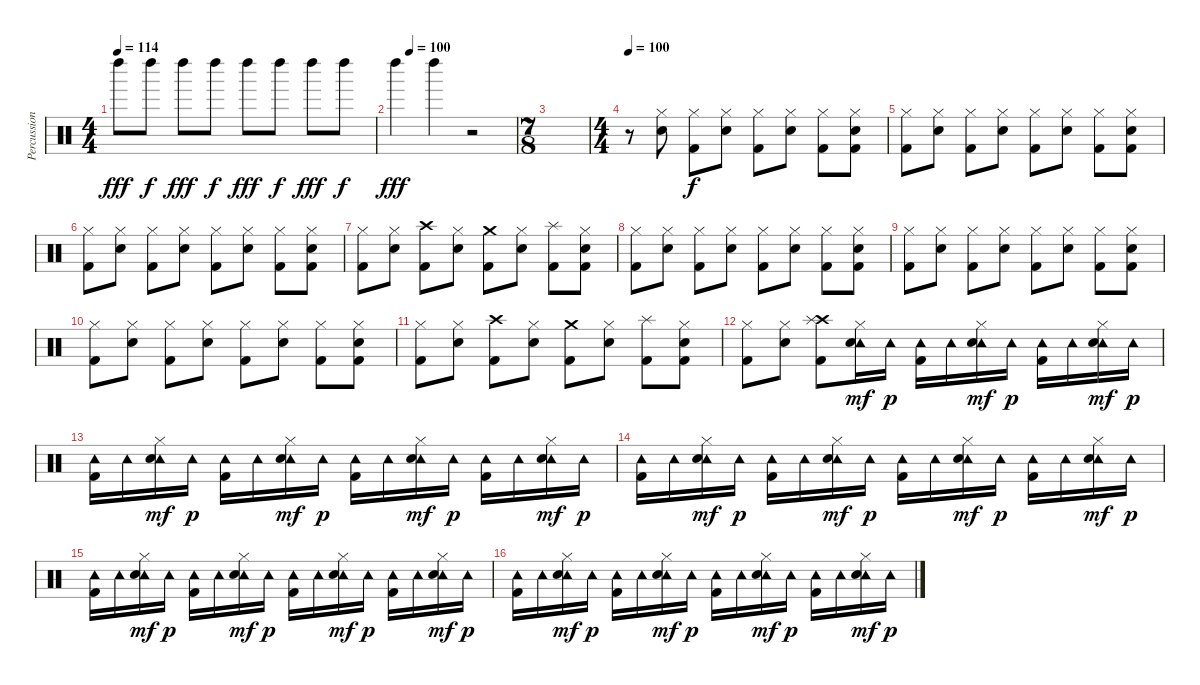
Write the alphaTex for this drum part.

\track ("Percussion" "Percussion") {instrument percussion}
\staff {score}
\articulation defaults
\ts (4 4)
\tempo 114
\clef neutral
\ks c "Left Maraca (hit)".8{dy fff} "Left Maraca (hit)".8{dy f} "Left Maraca (hit)".8{dy fff} "Left Maraca (hit)".8{dy f} "Left Maraca (hit)".8{dy fff} "Left Maraca (hit)".8{dy f} "Left Maraca (hit)".8{dy fff} "Left Maraca (hit)".8{dy f}
|
\tempo (100 0.125)
"Left Maraca (hit)".4{dy fff} "Left Maraca (hit)".4 r.2 |
\ts (7 8)
|
\ts (4 4)
\tempo 100
r.8 ("Hi-Hat (closed)" "Electric Snare (hit)").8 ("Hi-Hat (closed)" "Kick (hit) 2").8{dy f} ("Hi-Hat (closed)" "Electric Snare (hit)").8 ("Hi-Hat (closed)" "Kick (hit) 2").8 ("Hi-Hat (closed)" "Electric Snare (hit)").8 ("Hi-Hat (closed)" "Kick (hit) 2").8 ("Hi-Hat (closed)" "Electric Snare (hit)" "Kick (hit) 2").8 |
("Hi-Hat (closed)" "Kick (hit) 2").8 ("Hi-Hat (closed)" "Electric Snare (hit)").8 ("Hi-Hat (closed)" "Kick (hit) 2").8 ("Hi-Hat (closed)" "Electric Snare (hit)").8 ("Hi-Hat (closed)" "Kick (hit) 2").8 ("Hi-Hat (closed)" "Electric Snare (hit)").8 ("Hi-Hat (closed)" "Kick (hit) 2").8 ("Hi-Hat (closed)" "Electric Snare (hit)" "Kick (hit) 2").8 |
("Hi-Hat (closed)" "Kick (hit) 2").8 ("Hi-Hat (closed)" "Electric Snare (hit)").8 ("Hi-Hat (closed)" "Kick (hit) 2").8 ("Hi-Hat (closed)" "Electric Snare (hit)").8 ("Hi-Hat (closed)" "Kick (hit) 2").8 ("Hi-Hat (closed)" "Electric Snare (hit)").8 ("Hi-Hat (closed)" "Kick (hit) 2").8 ("Hi-Hat (closed)" "Electric Snare (hit)" "Kick (hit) 2").8 |
("Hi-Hat (closed)" "Kick (hit) 2").8 ("Hi-Hat (closed)" "Electric Snare (hit)").8 ("Crash high (hit)" "Kick (hit) 2").8 ("Hi-Hat (closed)" "Electric Snare (hit)").8 ("Crash medium (hit)" "Kick (hit) 2").8 ("Hi-Hat (closed)" "Electric Snare (hit)").8 ("Splash (hit)" "Kick (hit) 2").8 ("Hi-Hat (closed)" "Electric Snare (hit)" "Kick (hit) 2").8 |
("Hi-Hat (closed)" "Kick (hit) 2").8 ("Hi-Hat (closed)" "Electric Snare (hit)").8 ("Hi-Hat (closed)" "Kick (hit) 2").8 ("Hi-Hat (closed)" "Electric Snare (hit)").8 ("Hi-Hat (closed)" "Kick (hit) 2").8 ("Hi-Hat (closed)" "Electric Snare (hit)").8 ("Hi-Hat (closed)" "Kick (hit) 2").8 ("Hi-Hat (closed)" "Electric Snare (hit)" "Kick (hit) 2").8 |
("Hi-Hat (closed)" "Kick (hit) 2").8 ("Hi-Hat (closed)" "Electric Snare (hit)").8 ("Hi-Hat (closed)" "Kick (hit) 2").8 ("Hi-Hat (closed)" "Electric Snare (hit)").8 ("Hi-Hat (closed)" "Kick (hit) 2").8 ("Hi-Hat (closed)" "Electric Snare (hit)").8 ("Hi-Hat (closed)" "Kick (hit) 2").8 ("Hi-Hat (closed)" "Electric Snare (hit)" "Kick (hit) 2").8 |
("Hi-Hat (closed)" "Kick (hit) 2").8 ("Hi-Hat (closed)" "Electric Snare (hit)").8 ("Hi-Hat (closed)" "Kick (hit) 2").8 ("Hi-Hat (closed)" "Electric Snare (hit)").8 ("Hi-Hat (closed)" "Kick (hit) 2").8 ("Hi-Hat (closed)" "Electric Snare (hit)").8 ("Hi-Hat (closed)" "Kick (hit) 2").8 ("Hi-Hat (closed)" "Electric Snare (hit)" "Kick (hit) 2").8 |
("Hi-Hat (closed)" "Kick (hit) 2").8 ("Hi-Hat (closed)" "Electric Snare (hit)").8 ("Crash high (hit)" "Kick (hit) 2").8 ("Hi-Hat (closed)" "Electric Snare (hit)").8 ("Crash medium (hit)" "Kick (hit) 2").8 ("Hi-Hat (closed)" "Electric Snare (hit)").8 ("Splash (hit)" "Kick (hit) 2").8 ("Hi-Hat (closed)" "Electric Snare (hit)" "Kick (hit) 2").8 |
("Hi-Hat (closed)" "Kick (hit) 2").8 ("Hi-Hat (closed)" "Electric Snare (hit)").8 ("Crash high (hit)" "Splash (hit)" "Kick (hit) 2").8 ("Tambourine (hit)" "Hi-Hat (closed)" "Electric Snare (hit)").16{dy mf} "Tambourine (hit)".16{dy p} ("Tambourine (hit)" "Kick (hit) 2").16 "Tambourine (hit)".16 ("Tambourine (hit)" "Hi-Hat (closed)" "Electric Snare (hit)").16{dy mf} "Tambourine (hit)".16{dy p} ("Tambourine (hit)" "Kick (hit) 2").16 "Tambourine (hit)".16 ("Tambourine (hit)" "Hi-Hat (closed)" "Electric Snare (hit)").16{dy mf} "Tambourine (hit)".16{dy p} |
("Tambourine (hit)" "Kick (hit) 2").16 "Tambourine (hit)".16 ("Tambourine (hit)" "Hi-Hat (closed)" "Electric Snare (hit)").16{dy mf} "Tambourine (hit)".16{dy p} ("Tambourine (hit)" "Kick (hit) 2").16 "Tambourine (hit)".16 ("Tambourine (hit)" "Hi-Hat (closed)" "Electric Snare (hit)").16{dy mf} "Tambourine (hit)".16{dy p} ("Tambourine (hit)" "Kick (hit) 2").16 "Tambourine (hit)".16 ("Tambourine (hit)" "Hi-Hat (closed)" "Electric Snare (hit)").16{dy mf} "Tambourine (hit)".16{dy p} ("Tambourine (hit)" "Kick (hit) 2").16 "Tambourine (hit)".16 ("Tambourine (hit)" "Hi-Hat (closed)" "Electric Snare (hit)").16{dy mf} "Tambourine (hit)".16{dy p} |
("Tambourine (hit)" "Kick (hit) 2").16 "Tambourine (hit)".16 ("Tambourine (hit)" "Hi-Hat (closed)" "Electric Snare (hit)").16{dy mf} "Tambourine (hit)".16{dy p} ("Tambourine (hit)" "Kick (hit) 2").16 "Tambourine (hit)".16 ("Tambourine (hit)" "Hi-Hat (closed)" "Electric Snare (hit)").16{dy mf} "Tambourine (hit)".16{dy p} ("Tambourine (hit)" "Kick (hit) 2").16 "Tambourine (hit)".16 ("Tambourine (hit)" "Hi-Hat (closed)" "Electric Snare (hit)").16{dy mf} "Tambourine (hit)".16{dy p} ("Tambourine (hit)" "Kick (hit) 2").16 "Tambourine (hit)".16 ("Tambourine (hit)" "Hi-Hat (closed)" "Electric Snare (hit)").16{dy mf} "Tambourine (hit)".16{dy p} |
("Tambourine (hit)" "Kick (hit) 2").16 "Tambourine (hit)".16 ("Tambourine (hit)" "Hi-Hat (closed)" "Electric Snare (hit)").16{dy mf} "Tambourine (hit)".16{dy p} ("Tambourine (hit)" "Kick (hit) 2").16 "Tambourine (hit)".16 ("Tambourine (hit)" "Hi-Hat (closed)" "Electric Snare (hit)").16{dy mf} "Tambourine (hit)".16{dy p} ("Tambourine (hit)" "Kick (hit) 2").16 "Tambourine (hit)".16 ("Tambourine (hit)" "Hi-Hat (closed)" "Electric Snare (hit)").16{dy mf} "Tambourine (hit)".16{dy p} ("Tambourine (hit)" "Kick (hit) 2").16 "Tambourine (hit)".16 ("Tambourine (hit)" "Hi-Hat (closed)" "Electric Snare (hit)").16{dy mf} "Tambourine (hit)".16{dy p} |
("Tambourine (hit)" "Kick (hit) 2").16 "Tambourine (hit)".16 ("Tambourine (hit)" "Hi-Hat (closed)" "Electric Snare (hit)").16{dy mf} "Tambourine (hit)".16{dy p} ("Tambourine (hit)" "Kick (hit) 2").16 "Tambourine (hit)".16 ("Tambourine (hit)" "Hi-Hat (closed)" "Electric Snare (hit)").16{dy mf} "Tambourine (hit)".16{dy p} ("Tambourine (hit)" "Kick (hit) 2").16 "Tambourine (hit)".16 ("Tambourine (hit)" "Hi-Hat (closed)" "Electric Snare (hit)").16{dy mf} "Tambourine (hit)".16{dy p} ("Tambourine (hit)" "Kick (hit) 2").16 "Tambourine (hit)".16 ("Tambourine (hit)" "Hi-Hat (closed)" "Electric Snare (hit)").16{dy mf} "Tambourine (hit)".16{dy p}
